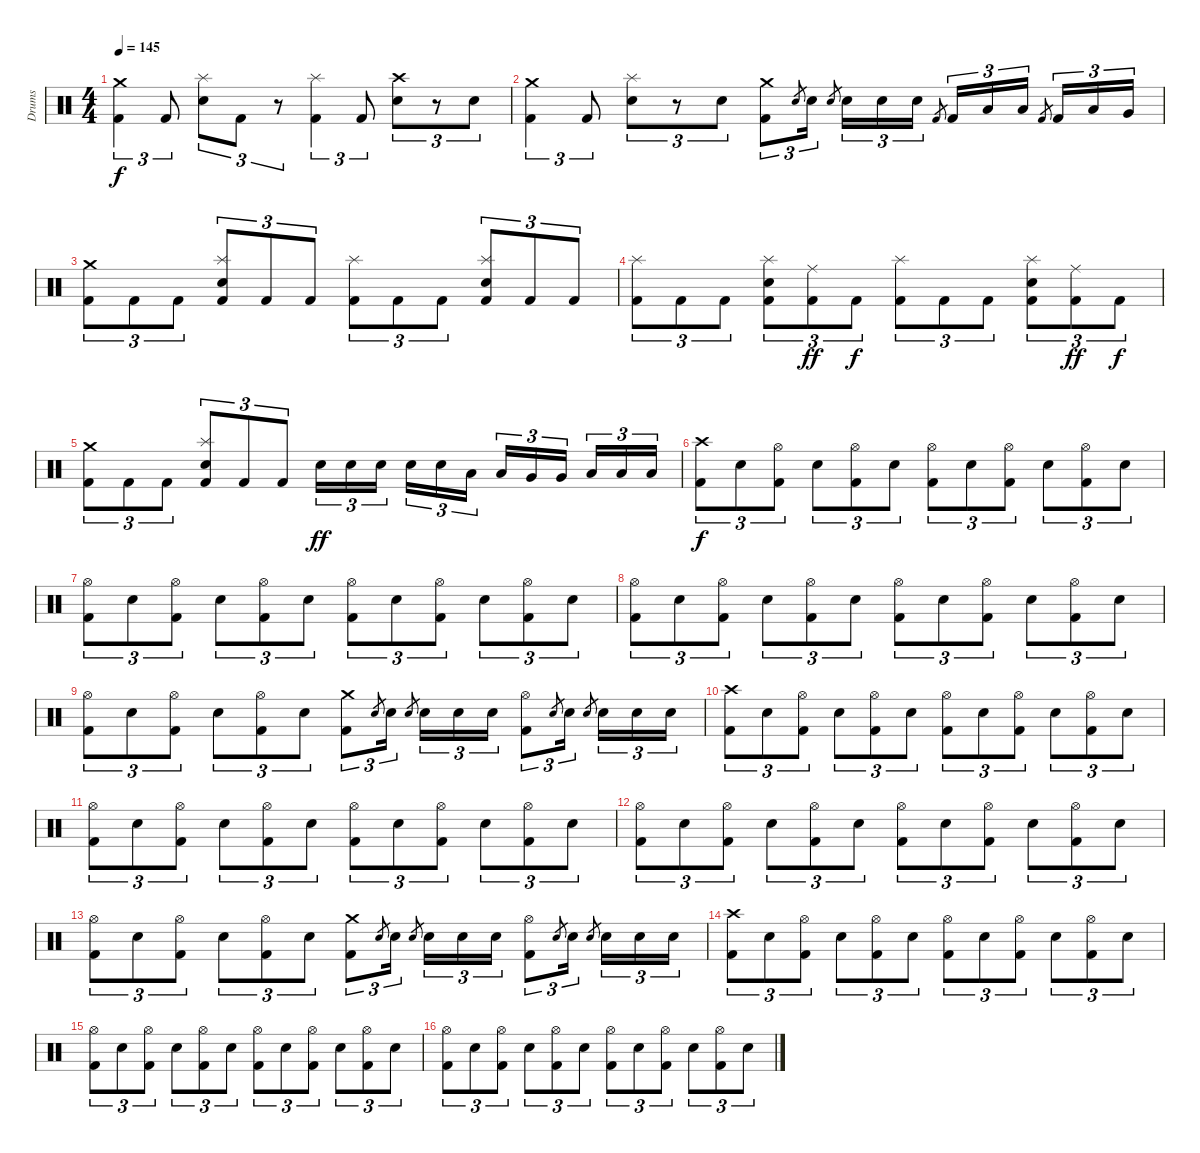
\track ("Drums" "Drums") {instrument percussion}
\staff {score}
\articulation defaults
\ts (4 4)
\tempo 145
\clef neutral
\ks c
("Crash medium (hit)" "Kick (hit) 2").4{tu (3 2) dy f} "Kick (hit) 2".8{tu (3 2)} ("Splash (hit)" "Electric Snare (hit)").8{tu (3 2)} "Kick (hit) 2".8{tu (3 2)} r.8{tu (3 2)} ("Splash (hit)" "Kick (hit) 2").4{tu (3 2)} "Kick (hit) 2".8{tu (3 2)} ("Crash high (hit)" "Electric Snare (hit)").8{tu (3 2)} r.8{tu (3 2)} "Electric Snare (hit)".8{tu (3 2)} |
("Crash medium (hit)" "Kick (hit) 2").4{tu (3 2)} "Kick (hit) 2".8{tu (3 2)} ("Splash (hit)" "Electric Snare (hit)").8{tu (3 2)} r.8{tu (3 2)} "Electric Snare (hit)".8{tu (3 2)} ("Crash medium (hit)" "Kick (hit) 2").8{tu (3 2)} "Electric Snare (hit)".8{gr} "Electric Snare (hit)".16{tu (3 2)} "Electric Snare (hit)".8{gr beam splitsecondary} "Electric Snare (hit)".16{tu (3 2)} "Electric Snare (hit)".16{tu (3 2)} "Electric Snare (hit)".16{tu (3 2)} "Kick (hit) 2".8{gr} "Kick (hit) 2".16{tu (3 2)} "Low Tom (hit)".16{tu (3 2)} "Low Tom (hit)".16{tu (3 2)} "Kick (hit) 2".8{gr beam splitsecondary} "Kick (hit) 2".16{tu (3 2)} "Low Tom (hit)".16{tu (3 2)} "Very Low Tom (hit)".16{tu (3 2)} |
("Crash medium (hit)" "Kick (hit) 2").8{tu (3 2)} "Kick (hit) 2".8{tu (3 2)} "Kick (hit) 2".8{tu (3 2)} ("Splash (hit)" "Electric Snare (hit)" "Kick (hit) 2").8{tu (3 2)} "Kick (hit) 2".8{tu (3 2)} "Kick (hit) 2".8{tu (3 2)} ("Splash (hit)" "Kick (hit) 2").8{tu (3 2)} "Kick (hit) 2".8{tu (3 2)} "Kick (hit) 2".8{tu (3 2)} ("Splash (hit)" "Electric Snare (hit)" "Kick (hit) 2").8{tu (3 2)} "Kick (hit) 2".8{tu (3 2)} "Kick (hit) 2".8{tu (3 2)} |
("Splash (hit)" "Kick (hit) 2").8{tu (3 2)} "Kick (hit) 2".8{tu (3 2)} "Kick (hit) 2".8{tu (3 2)} ("Splash (hit)" "Electric Snare (hit)" "Kick (hit) 2").8{tu (3 2)} ("Ride (middle)" "Kick (hit) 2").8{tu (3 2) dy ff} "Kick (hit) 2".8{tu (3 2) dy f} ("Splash (hit)" "Kick (hit) 2").8{tu (3 2)} "Kick (hit) 2".8{tu (3 2)} "Kick (hit) 2".8{tu (3 2)} ("Splash (hit)" "Electric Snare (hit)" "Kick (hit) 2").8{tu (3 2)} ("Ride (middle)" "Kick (hit) 2").8{tu (3 2) dy ff} "Kick (hit) 2".8{tu (3 2) dy f} |
("Crash medium (hit)" "Kick (hit) 2").8{tu (3 2)} "Kick (hit) 2".8{tu (3 2)} "Kick (hit) 2".8{tu (3 2)} ("Splash (hit)" "Electric Snare (hit)" "Kick (hit) 2").8{tu (3 2)} "Kick (hit) 2".8{tu (3 2)} "Kick (hit) 2".8{tu (3 2)} "Electric Snare (hit)".16{tu (3 2) dy ff} "Electric Snare (hit)".16{tu (3 2)} "Electric Snare (hit)".16{tu (3 2) beam splitsecondary} "Electric Snare (hit)".16{tu (3 2)} "Electric Snare (hit)".16{tu (3 2)} "Low Tom (hit)".16{tu (3 2)} "Low Tom (hit)".16{tu (3 2)} "Very Low Tom (hit)".16{tu (3 2)} "Very Low Tom (hit)".16{tu (3 2) beam splitsecondary} "Low Floor Tom (hit)".16{tu (3 2)} "Low Floor Tom (hit)".16{tu (3 2)} "Low Floor Tom (hit)".16{tu (3 2)} |
("Crash high (hit)" "Kick (hit) 2").8{tu (3 2) dy f} "Electric Snare (hit)".8{tu (3 2)} ("Hi-Hat (open)" "Kick (hit) 2").8{tu (3 2)} "Electric Snare (hit)".8{tu (3 2)} ("Hi-Hat (open)" "Kick (hit) 2").8{tu (3 2)} "Electric Snare (hit)".8{tu (3 2)} ("Hi-Hat (open)" "Kick (hit) 2").8{tu (3 2)} "Electric Snare (hit)".8{tu (3 2)} ("Hi-Hat (open)" "Kick (hit) 2").8{tu (3 2)} "Electric Snare (hit)".8{tu (3 2)} ("Hi-Hat (open)" "Kick (hit) 2").8{tu (3 2)} "Electric Snare (hit)".8{tu (3 2)} |
("Hi-Hat (open)" "Kick (hit) 2").8{tu (3 2)} "Electric Snare (hit)".8{tu (3 2)} ("Hi-Hat (open)" "Kick (hit) 2").8{tu (3 2)} "Electric Snare (hit)".8{tu (3 2)} ("Hi-Hat (open)" "Kick (hit) 2").8{tu (3 2)} "Electric Snare (hit)".8{tu (3 2)} ("Hi-Hat (open)" "Kick (hit) 2").8{tu (3 2)} "Electric Snare (hit)".8{tu (3 2)} ("Hi-Hat (open)" "Kick (hit) 2").8{tu (3 2)} "Electric Snare (hit)".8{tu (3 2)} ("Hi-Hat (open)" "Kick (hit) 2").8{tu (3 2)} "Electric Snare (hit)".8{tu (3 2)} |
("Hi-Hat (open)" "Kick (hit) 2").8{tu (3 2)} "Electric Snare (hit)".8{tu (3 2)} ("Hi-Hat (open)" "Kick (hit) 2").8{tu (3 2)} "Electric Snare (hit)".8{tu (3 2)} ("Hi-Hat (open)" "Kick (hit) 2").8{tu (3 2)} "Electric Snare (hit)".8{tu (3 2)} ("Hi-Hat (open)" "Kick (hit) 2").8{tu (3 2)} "Electric Snare (hit)".8{tu (3 2)} ("Hi-Hat (open)" "Kick (hit) 2").8{tu (3 2)} "Electric Snare (hit)".8{tu (3 2)} ("Hi-Hat (open)" "Kick (hit) 2").8{tu (3 2)} "Electric Snare (hit)".8{tu (3 2)} |
("Hi-Hat (open)" "Kick (hit) 2").8{tu (3 2)} "Electric Snare (hit)".8{tu (3 2)} ("Hi-Hat (open)" "Kick (hit) 2").8{tu (3 2)} "Electric Snare (hit)".8{tu (3 2)} ("Hi-Hat (open)" "Kick (hit) 2").8{tu (3 2)} "Electric Snare (hit)".8{tu (3 2)} ("Crash medium (hit)" "Kick (hit) 2").8{tu (3 2)} "Electric Snare (hit)".8{gr} "Electric Snare (hit)".16{tu (3 2)} "Electric Snare (hit)".8{gr beam splitsecondary} "Electric Snare (hit)".16{tu (3 2)} "Electric Snare (hit)".16{tu (3 2)} "Electric Snare (hit)".16{tu (3 2)} ("Hi-Hat (open)" "Kick (hit) 2").8{tu (3 2)} "Electric Snare (hit)".8{gr} "Electric Snare (hit)".16{tu (3 2)} "Electric Snare (hit)".8{gr beam splitsecondary} "Electric Snare (hit)".16{tu (3 2)} "Electric Snare (hit)".16{tu (3 2)} "Electric Snare (hit)".16{tu (3 2)} |
("Crash high (hit)" "Kick (hit) 2").8{tu (3 2)} "Electric Snare (hit)".8{tu (3 2)} ("Hi-Hat (open)" "Kick (hit) 2").8{tu (3 2)} "Electric Snare (hit)".8{tu (3 2)} ("Hi-Hat (open)" "Kick (hit) 2").8{tu (3 2)} "Electric Snare (hit)".8{tu (3 2)} ("Hi-Hat (open)" "Kick (hit) 2").8{tu (3 2)} "Electric Snare (hit)".8{tu (3 2)} ("Hi-Hat (open)" "Kick (hit) 2").8{tu (3 2)} "Electric Snare (hit)".8{tu (3 2)} ("Hi-Hat (open)" "Kick (hit) 2").8{tu (3 2)} "Electric Snare (hit)".8{tu (3 2)} |
("Hi-Hat (open)" "Kick (hit) 2").8{tu (3 2)} "Electric Snare (hit)".8{tu (3 2)} ("Hi-Hat (open)" "Kick (hit) 2").8{tu (3 2)} "Electric Snare (hit)".8{tu (3 2)} ("Hi-Hat (open)" "Kick (hit) 2").8{tu (3 2)} "Electric Snare (hit)".8{tu (3 2)} ("Hi-Hat (open)" "Kick (hit) 2").8{tu (3 2)} "Electric Snare (hit)".8{tu (3 2)} ("Hi-Hat (open)" "Kick (hit) 2").8{tu (3 2)} "Electric Snare (hit)".8{tu (3 2)} ("Hi-Hat (open)" "Kick (hit) 2").8{tu (3 2)} "Electric Snare (hit)".8{tu (3 2)} |
("Hi-Hat (open)" "Kick (hit) 2").8{tu (3 2)} "Electric Snare (hit)".8{tu (3 2)} ("Hi-Hat (open)" "Kick (hit) 2").8{tu (3 2)} "Electric Snare (hit)".8{tu (3 2)} ("Hi-Hat (open)" "Kick (hit) 2").8{tu (3 2)} "Electric Snare (hit)".8{tu (3 2)} ("Hi-Hat (open)" "Kick (hit) 2").8{tu (3 2)} "Electric Snare (hit)".8{tu (3 2)} ("Hi-Hat (open)" "Kick (hit) 2").8{tu (3 2)} "Electric Snare (hit)".8{tu (3 2)} ("Hi-Hat (open)" "Kick (hit) 2").8{tu (3 2)} "Electric Snare (hit)".8{tu (3 2)} |
("Hi-Hat (open)" "Kick (hit) 2").8{tu (3 2)} "Electric Snare (hit)".8{tu (3 2)} ("Hi-Hat (open)" "Kick (hit) 2").8{tu (3 2)} "Electric Snare (hit)".8{tu (3 2)} ("Hi-Hat (open)" "Kick (hit) 2").8{tu (3 2)} "Electric Snare (hit)".8{tu (3 2)} ("Crash medium (hit)" "Kick (hit) 2").8{tu (3 2)} "Electric Snare (hit)".8{gr} "Electric Snare (hit)".16{tu (3 2)} "Electric Snare (hit)".8{gr beam splitsecondary} "Electric Snare (hit)".16{tu (3 2)} "Electric Snare (hit)".16{tu (3 2)} "Electric Snare (hit)".16{tu (3 2)} ("Hi-Hat (open)" "Kick (hit) 2").8{tu (3 2)} "Electric Snare (hit)".8{gr} "Electric Snare (hit)".16{tu (3 2)} "Electric Snare (hit)".8{gr beam splitsecondary} "Electric Snare (hit)".16{tu (3 2)} "Electric Snare (hit)".16{tu (3 2)} "Electric Snare (hit)".16{tu (3 2)} |
("Crash high (hit)" "Kick (hit) 2").8{tu (3 2)} "Electric Snare (hit)".8{tu (3 2)} ("Hi-Hat (open)" "Kick (hit) 2").8{tu (3 2)} "Electric Snare (hit)".8{tu (3 2)} ("Hi-Hat (open)" "Kick (hit) 2").8{tu (3 2)} "Electric Snare (hit)".8{tu (3 2)} ("Hi-Hat (open)" "Kick (hit) 2").8{tu (3 2)} "Electric Snare (hit)".8{tu (3 2)} ("Hi-Hat (open)" "Kick (hit) 2").8{tu (3 2)} "Electric Snare (hit)".8{tu (3 2)} ("Hi-Hat (open)" "Kick (hit) 2").8{tu (3 2)} "Electric Snare (hit)".8{tu (3 2)} |
("Hi-Hat (open)" "Kick (hit) 2").8{tu (3 2)} "Electric Snare (hit)".8{tu (3 2)} ("Hi-Hat (open)" "Kick (hit) 2").8{tu (3 2)} "Electric Snare (hit)".8{tu (3 2)} ("Hi-Hat (open)" "Kick (hit) 2").8{tu (3 2)} "Electric Snare (hit)".8{tu (3 2)} ("Hi-Hat (open)" "Kick (hit) 2").8{tu (3 2)} "Electric Snare (hit)".8{tu (3 2)} ("Hi-Hat (open)" "Kick (hit) 2").8{tu (3 2)} "Electric Snare (hit)".8{tu (3 2)} ("Hi-Hat (open)" "Kick (hit) 2").8{tu (3 2)} "Electric Snare (hit)".8{tu (3 2)} |
("Hi-Hat (open)" "Kick (hit) 2").8{tu (3 2)} "Electric Snare (hit)".8{tu (3 2)} ("Hi-Hat (open)" "Kick (hit) 2").8{tu (3 2)} "Electric Snare (hit)".8{tu (3 2)} ("Hi-Hat (open)" "Kick (hit) 2").8{tu (3 2)} "Electric Snare (hit)".8{tu (3 2)} ("Hi-Hat (open)" "Kick (hit) 2").8{tu (3 2)} "Electric Snare (hit)".8{tu (3 2)} ("Hi-Hat (open)" "Kick (hit) 2").8{tu (3 2)} "Electric Snare (hit)".8{tu (3 2)} ("Hi-Hat (open)" "Kick (hit) 2").8{tu (3 2)} "Electric Snare (hit)".8{tu (3 2)}
